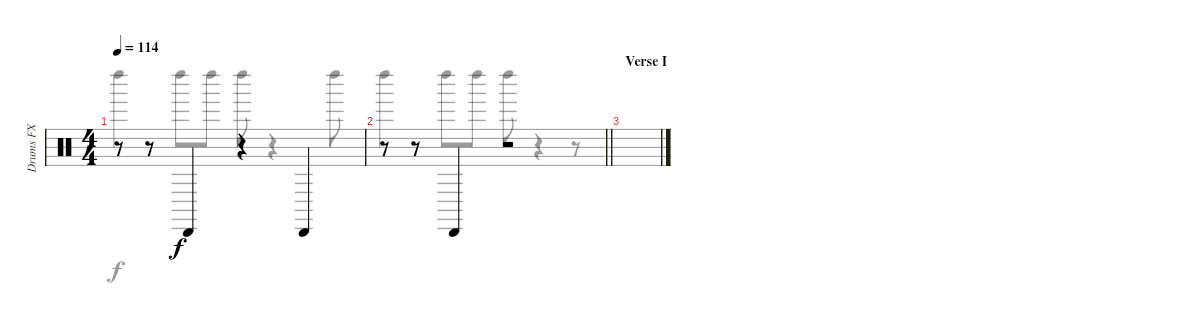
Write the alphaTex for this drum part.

\track ("Drums FX" "Drums FX") {instrument percussion}
\staff {score}
\articulation defaults
\voice
\ts (4 4)
\tempo 114
\clef neutral
\ks c
r.8{dy f} r.8 "Cabasa (hit)".4 r.4 "Cabasa (hit)".4 |
\barLineRight lightlight
r.8 r.8 "Cabasa (hit)".4 r.2 |
\section ("" "Verse I")
|
|
|
|
|
|
|
|
|
|
|
|
|
\voice
\clef neutral
\ottava regular
\simile none
\ks c "Left Maraca (hit)".4{dy f} "Left Maraca (hit)".8 "Left Maraca (hit)".8 "Left Maraca (hit)".8
r.4 "Left Maraca (hit)".8 |
\barLineRight lightlight "Left Maraca (hit)".4 "Left Maraca (hit)".8 "Left Maraca (hit)".8 "Left Maraca (hit)".8
r.4 r.8 |
|
|
|
|
|
|
|
|
|
|
|
|
|
